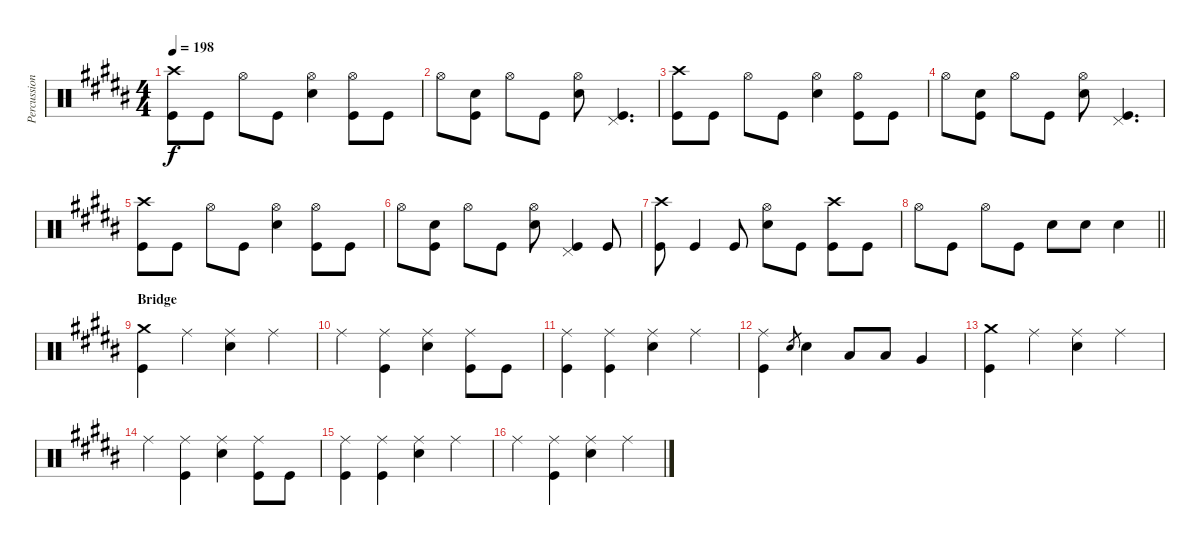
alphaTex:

\track ("Percussion" "Percussion") {instrument percussion}
\staff {score}
\articulation defaults
\ts (4 4)
\tempo 198
\clef neutral
\ks b
("Crash high (hit)" "Kick (hit)").8{dy f} "Kick (hit)".8 "Hi-Hat (open)".8 "Kick (hit)".8 ("Hi-Hat (open)" "Electric Snare (hit)").4 ("Hi-Hat (open)" "Kick (hit)").8 "Kick (hit)".8 |
"Hi-Hat (open)".8 ("Electric Snare (hit)" "Kick (hit)").8 "Hi-Hat (open)".8 "Kick (hit)".8 ("Hi-Hat (open)" "Electric Snare (hit)").8 ("Pedal Hi-Hat (hit)" "Kick (hit)").4{d} |
("Crash high (hit)" "Kick (hit)").8 "Kick (hit)".8 "Hi-Hat (open)".8 "Kick (hit)".8 ("Hi-Hat (open)" "Electric Snare (hit)").4 ("Hi-Hat (open)" "Kick (hit)").8 "Kick (hit)".8 |
"Hi-Hat (open)".8 ("Electric Snare (hit)" "Kick (hit)").8 "Hi-Hat (open)".8 "Kick (hit)".8 ("Hi-Hat (open)" "Electric Snare (hit)").8 ("Pedal Hi-Hat (hit)" "Kick (hit)").4{d} |
("Crash high (hit)" "Kick (hit)").8 "Kick (hit)".8 "Hi-Hat (open)".8 "Kick (hit)".8 ("Hi-Hat (open)" "Electric Snare (hit)").4 ("Hi-Hat (open)" "Kick (hit)").8 "Kick (hit)".8 |
"Hi-Hat (open)".8 ("Electric Snare (hit)" "Kick (hit)").8 "Hi-Hat (open)".8 "Kick (hit)".8 ("Hi-Hat (open)" "Electric Snare (hit)").8 ("Pedal Hi-Hat (hit)" "Kick (hit)").4 "Kick (hit)".8 |
("Crash high (hit)" "Kick (hit)").8 "Kick (hit)".4 "Kick (hit)".8 ("Hi-Hat (open)" "Electric Snare (hit)").8 "Kick (hit)".8 ("Crash high (hit)" "Kick (hit)").8 "Kick (hit)".8 |
\barLineRight lightlight "Hi-Hat (open)".8 "Kick (hit)".8 "Hi-Hat (open)".8 "Kick (hit)".8 "Electric Snare (hit)".8 "Electric Snare (hit)".8 "Electric Snare (hit)".4
|
\section ("" "Bridge")
("Crash medium (hit)" "Kick (hit)").4 "Ride (middle)".4 ("Ride (middle)" "Electric Snare (hit)").4 "Ride (middle)".4 |
"Ride (middle)".4 ("Ride (middle)" "Kick (hit)").4 ("Ride (middle)" "Electric Snare (hit)").4 ("Ride (middle)" "Kick (hit)").8 "Kick (hit)".8 |
("Ride (middle)" "Kick (hit)").4 ("Ride (middle)" "Kick (hit)").4 ("Ride (middle)" "Electric Snare (hit)").4 "Ride (middle)".4 |
("Ride (middle)" "Kick (hit)").4 "Electric Snare (hit)".8{gr} "Electric Snare (hit)".4 "Low Tom (hit)".8 "Low Tom (hit)".8 "Very Low Tom (hit)".4 |
("Crash medium (hit)" "Kick (hit)").4 "Ride (middle)".4 ("Ride (middle)" "Electric Snare (hit)").4 "Ride (middle)".4 |
"Ride (middle)".4 ("Ride (middle)" "Kick (hit)").4 ("Ride (middle)" "Electric Snare (hit)").4 ("Ride (middle)" "Kick (hit)").8 "Kick (hit)".8 |
("Ride (middle)" "Kick (hit)").4 ("Ride (middle)" "Kick (hit)").4 ("Ride (middle)" "Electric Snare (hit)").4 "Ride (middle)".4 |
"Ride (middle)".4 ("Ride (middle)" "Kick (hit)").4 ("Ride (middle)" "Electric Snare (hit)").4 "Ride (middle)".4
